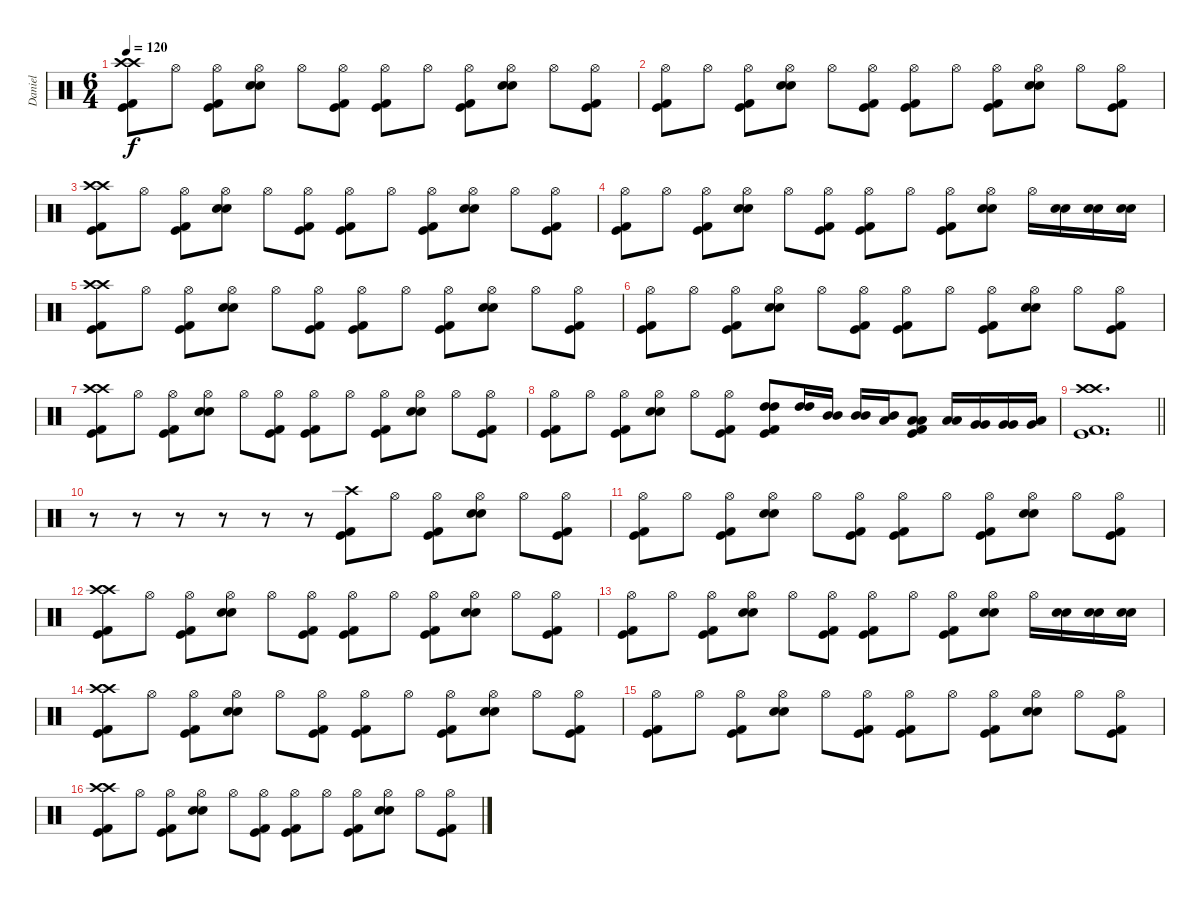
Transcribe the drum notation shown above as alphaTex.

\track ("Daniel" "Daniel") {instrument percussion}
\staff {score}
\articulation defaults
\ts (6 4)
\tempo 120
\clef neutral
\ks c
("Crash high (hit)" "Crash high (hit)" "Kick (hit) 2" "Kick (hit)").8{dy f} "Hi-Hat (open)".8 ("Hi-Hat (open)" "Kick (hit) 2" "Kick (hit)").8 ("Hi-Hat (open)" "Snare (hit) 2" "Electric Snare (hit)").8 "Hi-Hat (open)".8 ("Hi-Hat (open)" "Kick (hit) 2" "Kick (hit)").8 ("Hi-Hat (open)" "Kick (hit) 2" "Kick (hit)").8 "Hi-Hat (open)".8 ("Hi-Hat (open)" "Kick (hit) 2" "Kick (hit)").8 ("Hi-Hat (open)" "Snare (hit) 2" "Electric Snare (hit)").8 "Hi-Hat (open)".8 ("Hi-Hat (open)" "Kick (hit) 2" "Kick (hit)").8 |
("Hi-Hat (open)" "Kick (hit) 2" "Kick (hit)").8 "Hi-Hat (open)".8 ("Hi-Hat (open)" "Kick (hit) 2" "Kick (hit)").8 ("Hi-Hat (open)" "Snare (hit) 2" "Electric Snare (hit)").8 "Hi-Hat (open)".8 ("Hi-Hat (open)" "Kick (hit) 2" "Kick (hit)").8 ("Hi-Hat (open)" "Kick (hit) 2" "Kick (hit)").8 "Hi-Hat (open)".8 ("Hi-Hat (open)" "Kick (hit) 2" "Kick (hit)").8 ("Hi-Hat (open)" "Snare (hit) 2" "Electric Snare (hit)").8 "Hi-Hat (open)".8 ("Hi-Hat (open)" "Kick (hit) 2" "Kick (hit)").8 |
("Crash high (hit)" "Crash high (hit)" "Kick (hit) 2" "Kick (hit)").8 "Hi-Hat (open)".8 ("Hi-Hat (open)" "Kick (hit) 2" "Kick (hit)").8 ("Hi-Hat (open)" "Snare (hit) 2" "Electric Snare (hit)").8 "Hi-Hat (open)".8 ("Hi-Hat (open)" "Kick (hit) 2" "Kick (hit)").8 ("Hi-Hat (open)" "Kick (hit) 2" "Kick (hit)").8 "Hi-Hat (open)".8 ("Hi-Hat (open)" "Kick (hit) 2" "Kick (hit)").8 ("Hi-Hat (open)" "Snare (hit) 2" "Electric Snare (hit)").8 "Hi-Hat (open)".8 ("Hi-Hat (open)" "Kick (hit) 2" "Kick (hit)").8 |
("Hi-Hat (open)" "Kick (hit) 2" "Kick (hit)").8 "Hi-Hat (open)".8 ("Hi-Hat (open)" "Kick (hit) 2" "Kick (hit)").8 ("Hi-Hat (open)" "Snare (hit) 2" "Electric Snare (hit)").8 "Hi-Hat (open)".8 ("Hi-Hat (open)" "Kick (hit) 2" "Kick (hit)").8 ("Hi-Hat (open)" "Kick (hit) 2" "Kick (hit)").8 "Hi-Hat (open)".8 ("Hi-Hat (open)" "Kick (hit) 2" "Kick (hit)").8 ("Hi-Hat (open)" "Snare (hit) 2" "Electric Snare (hit)").8 "Hi-Hat (open)".16 ("Snare (hit) 2" "Electric Snare (hit)").16 ("Snare (hit) 2" "Electric Snare (hit)").16 ("Snare (hit) 2" "Electric Snare (hit)").16 |
("Crash high (hit)" "Crash high (hit)" "Kick (hit) 2" "Kick (hit)").8 "Hi-Hat (open)".8 ("Hi-Hat (open)" "Kick (hit) 2" "Kick (hit)").8 ("Hi-Hat (open)" "Snare (hit) 2" "Electric Snare (hit)").8 "Hi-Hat (open)".8 ("Hi-Hat (open)" "Kick (hit) 2" "Kick (hit)").8 ("Hi-Hat (open)" "Kick (hit) 2" "Kick (hit)").8 "Hi-Hat (open)".8 ("Hi-Hat (open)" "Kick (hit) 2" "Kick (hit)").8 ("Hi-Hat (open)" "Snare (hit) 2" "Electric Snare (hit)").8 "Hi-Hat (open)".8 ("Hi-Hat (open)" "Kick (hit) 2" "Kick (hit)").8 |
("Hi-Hat (open)" "Kick (hit) 2" "Kick (hit)").8 "Hi-Hat (open)".8 ("Hi-Hat (open)" "Kick (hit) 2" "Kick (hit)").8 ("Hi-Hat (open)" "Snare (hit) 2" "Electric Snare (hit)").8 "Hi-Hat (open)".8 ("Hi-Hat (open)" "Kick (hit) 2" "Kick (hit)").8 ("Hi-Hat (open)" "Kick (hit) 2" "Kick (hit)").8 "Hi-Hat (open)".8 ("Hi-Hat (open)" "Kick (hit) 2" "Kick (hit)").8 ("Hi-Hat (open)" "Snare (hit) 2" "Electric Snare (hit)").8 "Hi-Hat (open)".8 ("Hi-Hat (open)" "Kick (hit) 2" "Kick (hit)").8 |
("Crash high (hit)" "Crash high (hit)" "Kick (hit) 2" "Kick (hit)").8 "Hi-Hat (open)".8 ("Hi-Hat (open)" "Kick (hit) 2" "Kick (hit)").8 ("Hi-Hat (open)" "Snare (hit) 2" "Electric Snare (hit)").8 "Hi-Hat (open)".8 ("Hi-Hat (open)" "Kick (hit) 2" "Kick (hit)").8 ("Hi-Hat (open)" "Kick (hit) 2" "Kick (hit)").8 "Hi-Hat (open)".8 ("Hi-Hat (open)" "Kick (hit) 2" "Kick (hit)").8 ("Hi-Hat (open)" "Snare (hit) 2" "Electric Snare (hit)").8 "Hi-Hat (open)".8 ("Hi-Hat (open)" "Kick (hit) 2" "Kick (hit)").8 |
("Hi-Hat (open)" "Kick (hit) 2" "Kick (hit)").8 "Hi-Hat (open)".8 ("Hi-Hat (open)" "Kick (hit) 2" "Kick (hit)").8 ("Hi-Hat (open)" "Snare (hit) 2" "Electric Snare (hit)").8 "Hi-Hat (open)".8 ("Hi-Hat (open)" "Kick (hit) 2" "Kick (hit)").8 ("High Tom (hit)" "High Tom (hit)" "Kick (hit) 2" "Kick (hit)").8 ("High Tom (hit)" "High Tom (hit)").16 ("Mid Tom (hit)" "Mid Tom (hit)").16 ("Mid Tom (hit)" "Mid Tom (hit)").16 ("Mid Tom (hit)" "Low Tom (hit)").16 ("Low Tom (hit)" "Low Tom (hit)" "Kick (hit) 2" "Kick (hit)").8 ("Low Tom (hit)" "Low Tom (hit)").16 ("Very Low Tom (hit)" "Very Low Tom (hit)").16 ("Very Low Tom (hit)" "Very Low Tom (hit)").16 ("Very Low Tom (hit)" "Low Floor Tom (hit)").16 |
\barLineRight lightlight
("Crash high (hit)" "Crash high (hit)" "Kick (hit) 2" "Kick (hit)").1{d} |
r.8 r.8 r.8 r.8 r.8 r.8 ("Crash high (hit)" "Kick (hit) 2" "Kick (hit)").8 "Hi-Hat (open)".8 ("Hi-Hat (open)" "Kick (hit) 2" "Kick (hit)").8 ("Hi-Hat (open)" "Snare (hit) 2" "Electric Snare (hit)").8 "Hi-Hat (open)".8 ("Hi-Hat (open)" "Kick (hit) 2" "Kick (hit)").8 |
("Hi-Hat (open)" "Kick (hit) 2" "Kick (hit)").8 "Hi-Hat (open)".8 ("Hi-Hat (open)" "Kick (hit) 2" "Kick (hit)").8 ("Hi-Hat (open)" "Snare (hit) 2" "Electric Snare (hit)").8 "Hi-Hat (open)".8 ("Hi-Hat (open)" "Kick (hit) 2" "Kick (hit)").8 ("Hi-Hat (open)" "Kick (hit) 2" "Kick (hit)").8 "Hi-Hat (open)".8 ("Hi-Hat (open)" "Kick (hit) 2" "Kick (hit)").8 ("Hi-Hat (open)" "Snare (hit) 2" "Electric Snare (hit)").8 "Hi-Hat (open)".8 ("Hi-Hat (open)" "Kick (hit) 2" "Kick (hit)").8 |
("Crash high (hit)" "Crash high (hit)" "Kick (hit) 2" "Kick (hit)").8 "Hi-Hat (open)".8 ("Hi-Hat (open)" "Kick (hit) 2" "Kick (hit)").8 ("Hi-Hat (open)" "Snare (hit) 2" "Electric Snare (hit)").8 "Hi-Hat (open)".8 ("Hi-Hat (open)" "Kick (hit) 2" "Kick (hit)").8 ("Hi-Hat (open)" "Kick (hit) 2" "Kick (hit)").8 "Hi-Hat (open)".8 ("Hi-Hat (open)" "Kick (hit) 2" "Kick (hit)").8 ("Hi-Hat (open)" "Snare (hit) 2" "Electric Snare (hit)").8 "Hi-Hat (open)".8 ("Hi-Hat (open)" "Kick (hit) 2" "Kick (hit)").8 |
("Hi-Hat (open)" "Kick (hit) 2" "Kick (hit)").8 "Hi-Hat (open)".8 ("Hi-Hat (open)" "Kick (hit) 2" "Kick (hit)").8 ("Hi-Hat (open)" "Snare (hit) 2" "Electric Snare (hit)").8 "Hi-Hat (open)".8 ("Hi-Hat (open)" "Kick (hit) 2" "Kick (hit)").8 ("Hi-Hat (open)" "Kick (hit) 2" "Kick (hit)").8 "Hi-Hat (open)".8 ("Hi-Hat (open)" "Kick (hit) 2" "Kick (hit)").8 ("Hi-Hat (open)" "Snare (hit) 2" "Electric Snare (hit)").8 "Hi-Hat (open)".16 ("Snare (hit) 2" "Electric Snare (hit)").16 ("Snare (hit) 2" "Electric Snare (hit)").16 ("Snare (hit) 2" "Electric Snare (hit)").16 |
("Crash high (hit)" "Crash high (hit)" "Kick (hit) 2" "Kick (hit)").8 "Hi-Hat (open)".8 ("Hi-Hat (open)" "Kick (hit) 2" "Kick (hit)").8 ("Hi-Hat (open)" "Snare (hit) 2" "Electric Snare (hit)").8 "Hi-Hat (open)".8 ("Hi-Hat (open)" "Kick (hit) 2" "Kick (hit)").8 ("Hi-Hat (open)" "Kick (hit) 2" "Kick (hit)").8 "Hi-Hat (open)".8 ("Hi-Hat (open)" "Kick (hit) 2" "Kick (hit)").8 ("Hi-Hat (open)" "Snare (hit) 2" "Electric Snare (hit)").8 "Hi-Hat (open)".8 ("Hi-Hat (open)" "Kick (hit) 2" "Kick (hit)").8 |
("Hi-Hat (open)" "Kick (hit) 2" "Kick (hit)").8 "Hi-Hat (open)".8 ("Hi-Hat (open)" "Kick (hit) 2" "Kick (hit)").8 ("Hi-Hat (open)" "Snare (hit) 2" "Electric Snare (hit)").8 "Hi-Hat (open)".8 ("Hi-Hat (open)" "Kick (hit) 2" "Kick (hit)").8 ("Hi-Hat (open)" "Kick (hit) 2" "Kick (hit)").8 "Hi-Hat (open)".8 ("Hi-Hat (open)" "Kick (hit) 2" "Kick (hit)").8 ("Hi-Hat (open)" "Snare (hit) 2" "Electric Snare (hit)").8 "Hi-Hat (open)".8 ("Hi-Hat (open)" "Kick (hit) 2" "Kick (hit)").8 |
("Crash high (hit)" "Crash high (hit)" "Kick (hit) 2" "Kick (hit)").8 "Hi-Hat (open)".8 ("Hi-Hat (open)" "Kick (hit) 2" "Kick (hit)").8 ("Hi-Hat (open)" "Snare (hit) 2" "Electric Snare (hit)").8 "Hi-Hat (open)".8 ("Hi-Hat (open)" "Kick (hit) 2" "Kick (hit)").8 ("Hi-Hat (open)" "Kick (hit) 2" "Kick (hit)").8 "Hi-Hat (open)".8 ("Hi-Hat (open)" "Kick (hit) 2" "Kick (hit)").8 ("Hi-Hat (open)" "Snare (hit) 2" "Electric Snare (hit)").8 "Hi-Hat (open)".8 ("Hi-Hat (open)" "Kick (hit) 2" "Kick (hit)").8
